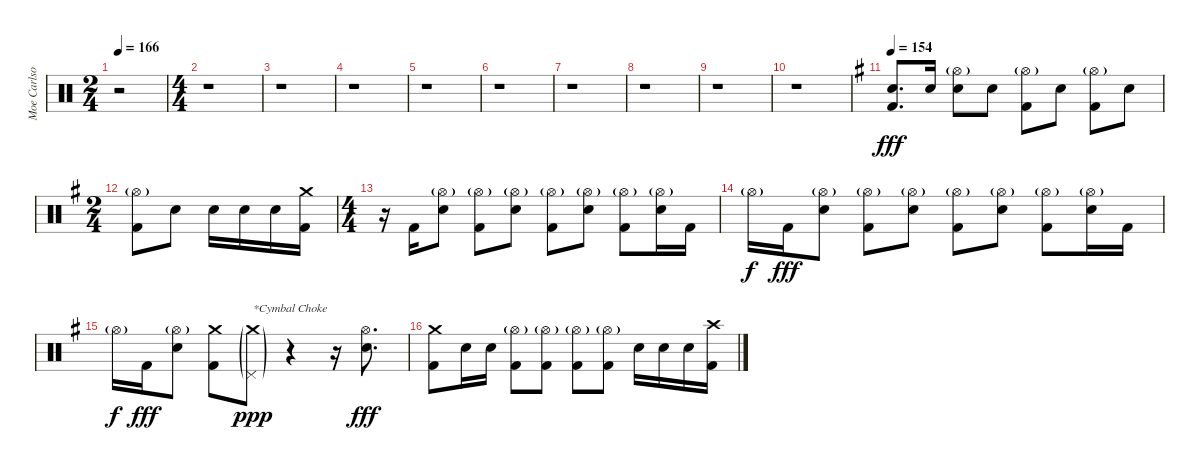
\track ("Moe Carlson" "Moe Carlso") {instrument percussion}
\staff {score}
\articulation defaults
\ts (2 4)
\tempo 166
\clef neutral
\ks c
r.2{dy fff} |
\ts (4 4)
r.1 |
r.1 |
r.1 |
r.1 |
r.1 |
r.1 |
r.1 |
r.1 |
r.1 |
\tempo 154
\ks g
("Electric Snare (hit)" "Kick (hit) 2").8{d} "Electric Snare (hit)".16 ("Hi-Hat (open)"{g} "Electric Snare (hit)").8 "Electric Snare (hit)".8 ("Hi-Hat (open)"{g} "Kick (hit) 2").8 "Electric Snare (hit)".8 ("Hi-Hat (open)"{g} "Kick (hit) 2").8 "Electric Snare (hit)".8 |
\ts (2 4)
("Hi-Hat (open)"{g} "Kick (hit) 2").8 "Electric Snare (hit)".8 "Electric Snare (hit)".16 "Electric Snare (hit)".16 "Electric Snare (hit)".16 ("Crash medium (hit)" "Kick (hit) 2").16 |
\ts (4 4)
r.16 "Kick (hit) 2".16 ("Hi-Hat (open)"{g} "Electric Snare (hit)").8 ("Hi-Hat (open)"{g} "Kick (hit) 2").8 ("Hi-Hat (open)"{g} "Electric Snare (hit)").8 ("Hi-Hat (open)"{g} "Kick (hit) 2").8 ("Hi-Hat (open)"{g} "Electric Snare (hit)").8 ("Hi-Hat (open)"{g} "Kick (hit) 2").8 ("Hi-Hat (open)"{g} "Electric Snare (hit)").16 "Kick (hit) 2".16 |
"Hi-Hat (open)"{g}.16{dy f} "Kick (hit) 2".16{dy fff} ("Hi-Hat (open)"{g} "Electric Snare (hit)").8 ("Hi-Hat (open)"{g} "Kick (hit) 2").8 ("Hi-Hat (open)"{g} "Electric Snare (hit)").8 ("Hi-Hat (open)"{g} "Kick (hit) 2").8 ("Hi-Hat (open)"{g} "Electric Snare (hit)").8 ("Hi-Hat (open)"{g} "Kick (hit) 2").8 ("Hi-Hat (open)"{g} "Electric Snare (hit)").16 "Kick (hit) 2".16 |
"Hi-Hat (open)"{g}.16{dy f} "Kick (hit) 2".16{dy fff} ("Hi-Hat (open)"{g} "Electric Snare (hit)").8 ("Crash medium (hit)" "Kick (hit) 2").8 ("Crash medium (hit)"{g} "Pedal Hi-Hat (hit)"{g}).8{txt "*Cymbal Choke" dy ppp} r.4 r.16 ("Hi-Hat (open)" "Electric Snare (hit)").8{d dy fff} |
("Crash medium (hit)" "Kick (hit) 2").8 "Electric Snare (hit)".16 "Electric Snare (hit)".16 ("Hi-Hat (open)"{g} "Kick (hit) 2").8 ("Hi-Hat (open)"{g} "Kick (hit) 2").8 ("Hi-Hat (open)"{g} "Kick (hit) 2").8 ("Hi-Hat (open)"{g} "Kick (hit) 2").8 "Electric Snare (hit)".16 "Electric Snare (hit)".16 "Electric Snare (hit)".16 ("Crash high (hit)" "Kick (hit) 2").16
